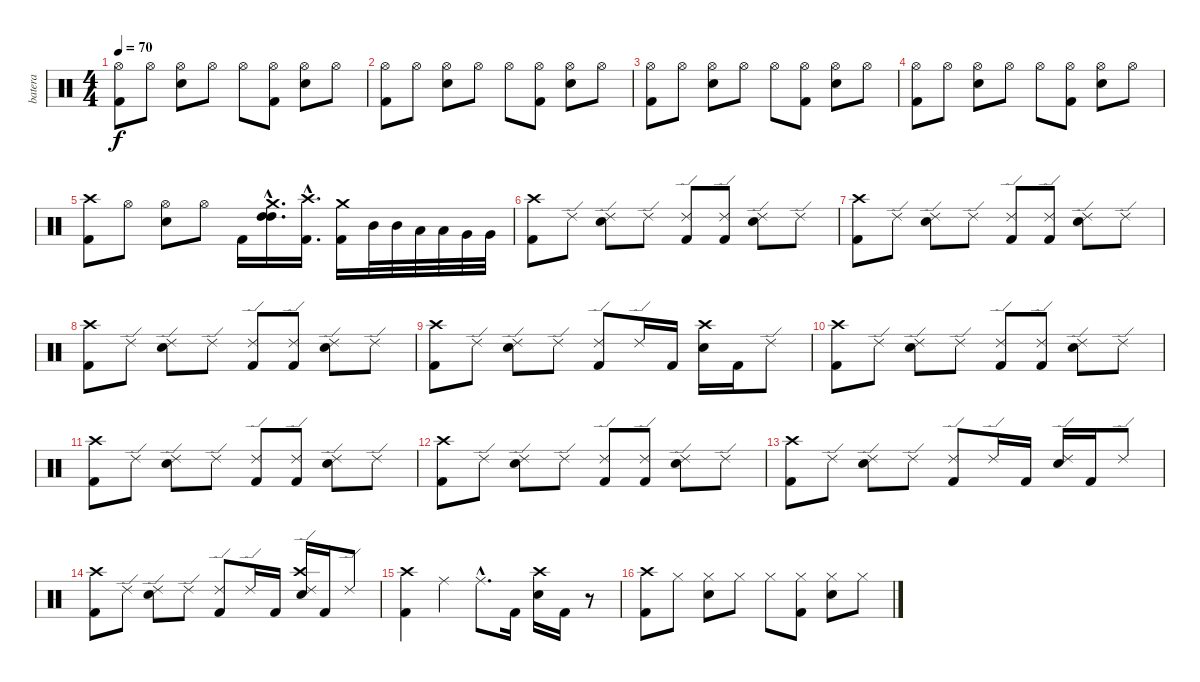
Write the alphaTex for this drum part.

\track ("batera" "batera") {instrument percussion}
\staff {score}
\articulation defaults
\ts (4 4)
\tempo 70
\clef neutral
\ks c
("Kick (hit) 2" "Hi-Hat (open)").8{dy f} "Hi-Hat (open)".8 ("Electric Snare (hit)" "Hi-Hat (open)").8 "Hi-Hat (open)".8 "Hi-Hat (open)".8 ("Kick (hit) 2" "Hi-Hat (open)").8 ("Electric Snare (hit)" "Hi-Hat (open)").8 "Hi-Hat (open)".8 |
("Kick (hit) 2" "Hi-Hat (open)").8 "Hi-Hat (open)".8 ("Electric Snare (hit)" "Hi-Hat (open)").8 "Hi-Hat (open)".8 "Hi-Hat (open)".8 ("Kick (hit) 2" "Hi-Hat (open)").8 ("Electric Snare (hit)" "Hi-Hat (open)").8 "Hi-Hat (open)".8 |
("Kick (hit) 2" "Hi-Hat (open)").8 "Hi-Hat (open)".8 ("Electric Snare (hit)" "Hi-Hat (open)").8 "Hi-Hat (open)".8 "Hi-Hat (open)".8 ("Kick (hit) 2" "Hi-Hat (open)").8 ("Electric Snare (hit)" "Hi-Hat (open)").8 "Hi-Hat (open)".8 |
("Kick (hit) 2" "Hi-Hat (open)").8 "Hi-Hat (open)".8 ("Electric Snare (hit)" "Hi-Hat (open)").8 "Hi-Hat (open)".8 "Hi-Hat (open)".8 ("Kick (hit) 2" "Hi-Hat (open)").8 ("Electric Snare (hit)" "Hi-Hat (open)").8 "Hi-Hat (open)".8 |
("Crash high (hit)" "Kick (hit) 2").8 "Hi-Hat (open)".8 ("Electric Snare (hit)" "Hi-Hat (open)").8 "Hi-Hat (open)".8 "Kick (hit) 2".16 ("Crash medium (hit)"{hac} "High Tom (hit)"{hac} "High Tom (hit)"{hac}).16{d} ("Crash high (hit)"{hac} "Kick (hit) 2"{hac}).16{d} ("Crash medium (hit)" "Kick (hit) 2").16 "Mid Tom (hit)".32 "Mid Tom (hit)".32 "Low Tom (hit)".32 "Low Tom (hit)".32 "Very Low Tom (hit)".32 "Very Low Tom (hit)".32 |
("Crash high (hit)" "Kick (hit) 2").8 "Ride (edge) 2".8 ("Electric Snare (hit)" "Ride (edge) 2").8 "Ride (edge) 2".8 ("Kick (hit) 2" "Ride (edge) 2").8 ("Kick (hit) 2" "Ride (edge) 2").8 ("Electric Snare (hit)" "Ride (edge) 2").8 "Ride (edge) 2".8 |
("Crash high (hit)" "Kick (hit) 2").8 "Ride (edge) 2".8 ("Electric Snare (hit)" "Ride (edge) 2").8 "Ride (edge) 2".8 ("Kick (hit) 2" "Ride (edge) 2").8 ("Kick (hit) 2" "Ride (edge) 2").8 ("Electric Snare (hit)" "Ride (edge) 2").8 "Ride (edge) 2".8 |
("Crash high (hit)" "Kick (hit) 2").8 "Ride (edge) 2".8 ("Electric Snare (hit)" "Ride (edge) 2").8 "Ride (edge) 2".8 ("Kick (hit) 2" "Ride (edge) 2").8 ("Kick (hit) 2" "Ride (edge) 2").8 ("Electric Snare (hit)" "Ride (edge) 2").8 "Ride (edge) 2".8 |
("Crash high (hit)" "Kick (hit) 2").8 "Ride (edge) 2".8 ("Electric Snare (hit)" "Ride (edge) 2").8 "Ride (edge) 2".8 ("Kick (hit) 2" "Ride (edge) 2").8 "Ride (edge) 2".16 "Kick (hit) 2".16 ("Crash high (hit)" "Electric Snare (hit)").16 "Kick (hit) 2".16 "Ride (edge) 2".8 |
("Crash high (hit)" "Kick (hit) 2").8 "Ride (edge) 2".8 ("Electric Snare (hit)" "Ride (edge) 2").8 "Ride (edge) 2".8 ("Kick (hit) 2" "Ride (edge) 2").8 ("Kick (hit) 2" "Ride (edge) 2").8 ("Electric Snare (hit)" "Ride (edge) 2").8 "Ride (edge) 2".8 |
("Crash high (hit)" "Kick (hit) 2").8 "Ride (edge) 2".8 ("Electric Snare (hit)" "Ride (edge) 2").8 "Ride (edge) 2".8 ("Kick (hit) 2" "Ride (edge) 2").8 ("Kick (hit) 2" "Ride (edge) 2").8 ("Electric Snare (hit)" "Ride (edge) 2").8 "Ride (edge) 2".8 |
("Crash high (hit)" "Kick (hit) 2").8 "Ride (edge) 2".8 ("Electric Snare (hit)" "Ride (edge) 2").8 "Ride (edge) 2".8 ("Kick (hit) 2" "Ride (edge) 2").8 ("Kick (hit) 2" "Ride (edge) 2").8 ("Electric Snare (hit)" "Ride (edge) 2").8 "Ride (edge) 2".8 |
("Crash high (hit)" "Kick (hit) 2").8 "Ride (edge) 2".8 ("Electric Snare (hit)" "Ride (edge) 2").8 "Ride (edge) 2".8 ("Kick (hit) 2" "Ride (edge) 2").8 "Ride (edge) 2".16 "Kick (hit) 2".16 ("Electric Snare (hit)" "Ride (edge) 2").16 "Kick (hit) 2".16 "Ride (edge) 2".8 |
("Crash high (hit)" "Kick (hit) 2").8 "Ride (edge) 2".8 ("Electric Snare (hit)" "Ride (edge) 2").8 "Ride (edge) 2".8 ("Kick (hit) 2" "Ride (edge) 2").8 "Ride (edge) 2".16 "Kick (hit) 2".16 ("Crash high (hit)" "Electric Snare (hit)" "Ride (edge) 2").16 "Kick (hit) 2".16 "Ride (edge) 2".8 |
("Crash high (hit)" "Kick (hit) 2").4 "Ride (middle)".4 "Ride (middle)"{hac}.8{d} "Kick (hit) 2".16 ("Crash high (hit)" "Electric Snare (hit)").16 "Kick (hit) 2".16 r.8 |
("Crash high (hit)" "Kick (hit) 2").8 "Hi-Hat (closed)".8 ("Electric Snare (hit)" "Hi-Hat (closed)").8 "Hi-Hat (closed)".8 "Hi-Hat (closed)".8 ("Kick (hit) 2" "Hi-Hat (closed)").8 ("Electric Snare (hit)" "Hi-Hat (closed)").8 "Hi-Hat (closed)".8
